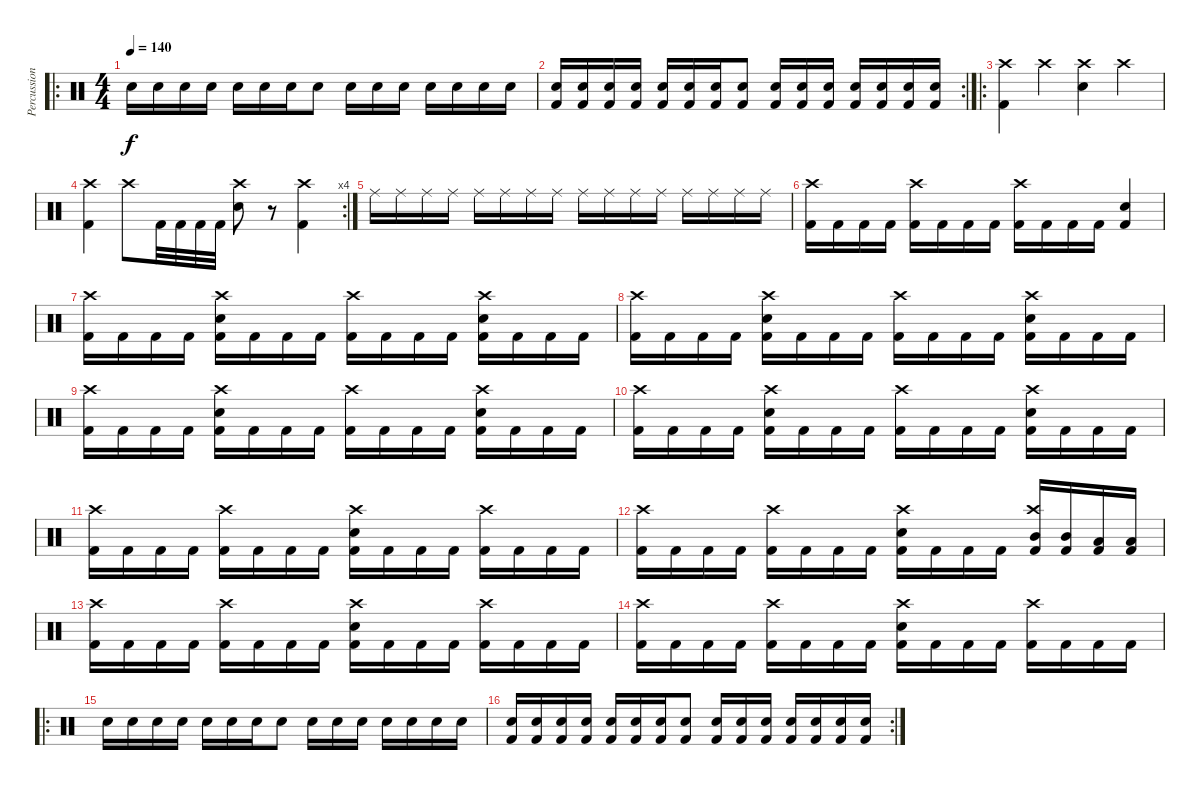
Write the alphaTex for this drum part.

\track ("Percussion" "Percussion") {instrument percussion}
\staff {score}
\articulation defaults
\ro
\ts (4 4)
\tempo 140
\clef neutral
\ks c "Snare (hit) 2".16{dy f} "Snare (hit) 2".16 "Snare (hit) 2".16 "Snare (hit) 2".16 "Snare (hit) 2".16 "Snare (hit) 2".16 "Snare (hit) 2".16 "Snare (hit) 2".8 "Snare (hit) 2".16 "Snare (hit) 2".16 "Snare (hit) 2".16 "Snare (hit) 2".16 "Snare (hit) 2".16 "Snare (hit) 2".16 "Snare (hit) 2".16
|
\rc 2
("Kick (hit) 2" "Snare (hit) 2").16 ("Kick (hit) 2" "Snare (hit) 2").16 ("Kick (hit) 2" "Snare (hit) 2").16 ("Kick (hit) 2" "Snare (hit) 2").16 ("Kick (hit) 2" "Snare (hit) 2").16 ("Kick (hit) 2" "Snare (hit) 2").16 ("Kick (hit) 2" "Snare (hit) 2").16 ("Kick (hit) 2" "Snare (hit) 2").8 ("Kick (hit) 2" "Snare (hit) 2").16 ("Kick (hit) 2" "Snare (hit) 2").16 ("Kick (hit) 2" "Snare (hit) 2").16 ("Kick (hit) 2" "Snare (hit) 2").16 ("Kick (hit) 2" "Snare (hit) 2").16 ("Kick (hit) 2" "Snare (hit) 2").16 ("Kick (hit) 2" "Snare (hit) 2").16 |
\ro
("Crash high (hit)" "Kick (hit) 2").4 "Crash high (hit)".4 ("Crash high (hit)" "Snare (hit) 2").4 "Crash high (hit)".4 |
\rc 4
("Crash high (hit)" "Kick (hit) 2").4 "Crash high (hit)".8 "Kick (hit) 2".32 "Kick (hit) 2".32 "Kick (hit) 2".32 "Kick (hit) 2".32 ("Crash high (hit)" "Snare (hit) 2").8 r.8 ("Crash high (hit)" "Kick (hit) 2").4 |
"Ride (middle)".16 "Ride (middle)".16 "Ride (middle)".16 "Ride (middle)".16 "Ride (middle)".16 "Ride (middle)".16 "Ride (middle)".16 "Ride (middle)".16 "Ride (middle)".16 "Ride (middle)".16 "Ride (middle)".16 "Ride (middle)".16 "Ride (middle)".16 "Ride (middle)".16 "Ride (middle)".16 "Ride (middle)".16 |
("Crash high (hit)" "Kick (hit) 2").16 "Kick (hit) 2".16 "Kick (hit) 2".16 "Kick (hit) 2".16 ("Crash high (hit)" "Kick (hit) 2").16 "Kick (hit) 2".16 "Kick (hit) 2".16 "Kick (hit) 2".16 ("Crash high (hit)" "Kick (hit) 2").16 "Kick (hit) 2".16 "Kick (hit) 2".16 "Kick (hit) 2".16 ("Snare (hit) 2" "Kick (hit) 2").4 |
("Crash high (hit)" "Kick (hit) 2").16 "Kick (hit) 2".16 "Kick (hit) 2".16 "Kick (hit) 2".16 ("Crash high (hit)" "Snare (hit) 2" "Kick (hit) 2").16 "Kick (hit) 2".16 "Kick (hit) 2".16 "Kick (hit) 2".16 ("Crash high (hit)" "Kick (hit) 2").16 "Kick (hit) 2".16 "Kick (hit) 2".16 "Kick (hit) 2".16 ("Crash high (hit)" "Snare (hit) 2" "Kick (hit) 2").16 "Kick (hit) 2".16 "Kick (hit) 2".16 "Kick (hit) 2".16 |
("Crash high (hit)" "Kick (hit) 2").16 "Kick (hit) 2".16 "Kick (hit) 2".16 "Kick (hit) 2".16 ("Crash high (hit)" "Snare (hit) 2" "Kick (hit) 2").16 "Kick (hit) 2".16 "Kick (hit) 2".16 "Kick (hit) 2".16 ("Crash high (hit)" "Kick (hit) 2").16 "Kick (hit) 2".16 "Kick (hit) 2".16 "Kick (hit) 2".16 ("Crash high (hit)" "Snare (hit) 2" "Kick (hit) 2").16 "Kick (hit) 2".16 "Kick (hit) 2".16 "Kick (hit) 2".16 |
("Crash high (hit)" "Kick (hit) 2").16 "Kick (hit) 2".16 "Kick (hit) 2".16 "Kick (hit) 2".16 ("Crash high (hit)" "Snare (hit) 2" "Kick (hit) 2").16 "Kick (hit) 2".16 "Kick (hit) 2".16 "Kick (hit) 2".16 ("Crash high (hit)" "Kick (hit) 2").16 "Kick (hit) 2".16 "Kick (hit) 2".16 "Kick (hit) 2".16 ("Crash high (hit)" "Snare (hit) 2" "Kick (hit) 2").16 "Kick (hit) 2".16 "Kick (hit) 2".16 "Kick (hit) 2".16 |
("Crash high (hit)" "Kick (hit) 2").16 "Kick (hit) 2".16 "Kick (hit) 2".16 "Kick (hit) 2".16 ("Crash high (hit)" "Snare (hit) 2" "Kick (hit) 2").16 "Kick (hit) 2".16 "Kick (hit) 2".16 "Kick (hit) 2".16 ("Crash high (hit)" "Kick (hit) 2").16 "Kick (hit) 2".16 "Kick (hit) 2".16 "Kick (hit) 2".16 ("Crash high (hit)" "Snare (hit) 2" "Kick (hit) 2").16 "Kick (hit) 2".16 "Kick (hit) 2".16 "Kick (hit) 2".16 |
("Crash high (hit)" "Kick (hit) 2").16 "Kick (hit) 2".16 "Kick (hit) 2".16 "Kick (hit) 2".16 ("Crash high (hit)" "Kick (hit) 2").16 "Kick (hit) 2".16 "Kick (hit) 2".16 "Kick (hit) 2".16 ("Crash high (hit)" "Snare (hit) 2" "Kick (hit) 2").16 "Kick (hit) 2".16 "Kick (hit) 2".16 "Kick (hit) 2".16 ("Crash high (hit)" "Kick (hit) 2").16 "Kick (hit) 2".16 "Kick (hit) 2".16 "Kick (hit) 2".16 |
("Crash high (hit)" "Kick (hit) 2").16 "Kick (hit) 2".16 "Kick (hit) 2".16 "Kick (hit) 2".16 ("Crash high (hit)" "Kick (hit) 2").16 "Kick (hit) 2".16 "Kick (hit) 2".16 "Kick (hit) 2".16 ("Crash high (hit)" "Snare (hit) 2" "Kick (hit) 2").16 "Kick (hit) 2".16 "Kick (hit) 2".16 "Kick (hit) 2".16 ("Crash high (hit)" "Mid Tom (hit)" "Kick (hit) 2").16 ("Mid Tom (hit)" "Kick (hit) 2").16 ("Low Tom (hit)" "Kick (hit) 2").16 ("Low Tom (hit)" "Kick (hit) 2").16 |
("Crash high (hit)" "Kick (hit) 2").16 "Kick (hit) 2".16 "Kick (hit) 2".16 "Kick (hit) 2".16 ("Crash high (hit)" "Kick (hit) 2").16 "Kick (hit) 2".16 "Kick (hit) 2".16 "Kick (hit) 2".16 ("Crash high (hit)" "Snare (hit) 2" "Kick (hit) 2").16 "Kick (hit) 2".16 "Kick (hit) 2".16 "Kick (hit) 2".16 ("Crash high (hit)" "Kick (hit) 2").16 "Kick (hit) 2".16 "Kick (hit) 2".16 "Kick (hit) 2".16 |
("Crash high (hit)" "Kick (hit) 2").16 "Kick (hit) 2".16 "Kick (hit) 2".16 "Kick (hit) 2".16 ("Crash high (hit)" "Kick (hit) 2").16 "Kick (hit) 2".16 "Kick (hit) 2".16 "Kick (hit) 2".16 ("Crash high (hit)" "Snare (hit) 2" "Kick (hit) 2").16 "Kick (hit) 2".16 "Kick (hit) 2".16 "Kick (hit) 2".16 ("Crash high (hit)" "Kick (hit) 2").16 "Kick (hit) 2".16 "Kick (hit) 2".16 "Kick (hit) 2".16 |
\ro "Snare (hit) 2".16 "Snare (hit) 2".16 "Snare (hit) 2".16 "Snare (hit) 2".16 "Snare (hit) 2".16 "Snare (hit) 2".16 "Snare (hit) 2".16 "Snare (hit) 2".8 "Snare (hit) 2".16 "Snare (hit) 2".16 "Snare (hit) 2".16 "Snare (hit) 2".16 "Snare (hit) 2".16 "Snare (hit) 2".16 "Snare (hit) 2".16
|
\rc 2
("Kick (hit) 2" "Snare (hit) 2").16 ("Kick (hit) 2" "Snare (hit) 2").16 ("Kick (hit) 2" "Snare (hit) 2").16 ("Kick (hit) 2" "Snare (hit) 2").16 ("Kick (hit) 2" "Snare (hit) 2").16 ("Kick (hit) 2" "Snare (hit) 2").16 ("Kick (hit) 2" "Snare (hit) 2").16 ("Kick (hit) 2" "Snare (hit) 2").8 ("Kick (hit) 2" "Snare (hit) 2").16 ("Kick (hit) 2" "Snare (hit) 2").16 ("Kick (hit) 2" "Snare (hit) 2").16 ("Kick (hit) 2" "Snare (hit) 2").16 ("Kick (hit) 2" "Snare (hit) 2").16 ("Kick (hit) 2" "Snare (hit) 2").16 ("Kick (hit) 2" "Snare (hit) 2").16
